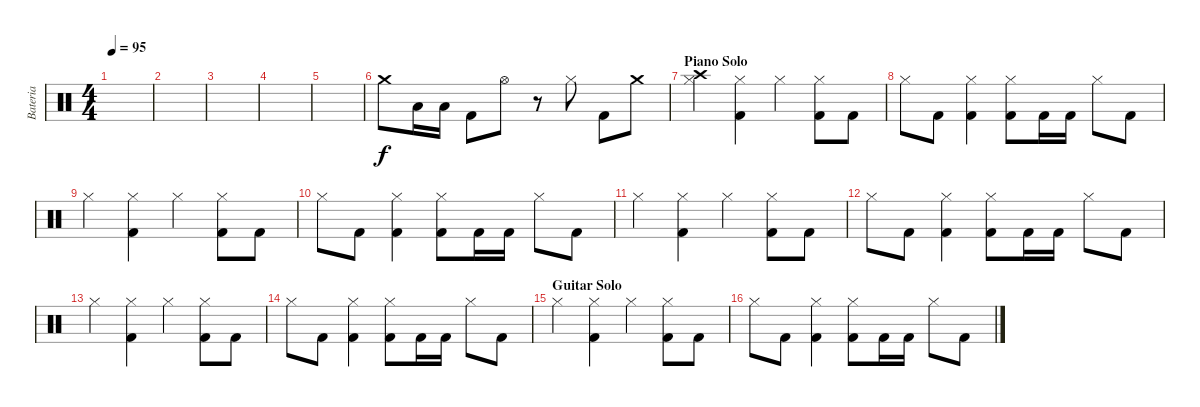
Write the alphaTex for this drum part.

\track ("Bateria" "Bateria") {instrument percussion}
\staff {score}
\articulation defaults
\ts (4 4)
\tempo 95
\clef neutral
\ks c
|
|
|
|
|
"Crash medium (hit)".8 "Low Tom (hit)".16 "Low Tom (hit)".16 "Kick (hit) 2".8 "Hi-Hat (open)".8 r.8 "Hi-Hat (closed)".8 "Kick (hit) 2".8 "Crash medium (hit)".8 |
\section ("" "Piano Solo")
("Hi-Hat (closed)" "Crash high (hit)").4 ("Hi-Hat (closed)" "Kick (hit) 2").4 "Hi-Hat (closed)".4 ("Hi-Hat (closed)" "Kick (hit) 2").8 "Kick (hit) 2".8 |
"Hi-Hat (closed)".8 "Kick (hit) 2".8 ("Hi-Hat (closed)" "Kick (hit) 2").4 ("Hi-Hat (closed)" "Kick (hit) 2").8 "Kick (hit) 2".16 "Kick (hit) 2".16 "Hi-Hat (closed)".8 "Kick (hit) 2".8 |
"Hi-Hat (closed)".4 ("Hi-Hat (closed)" "Kick (hit) 2").4 "Hi-Hat (closed)".4 ("Hi-Hat (closed)" "Kick (hit) 2").8 "Kick (hit) 2".8 |
"Hi-Hat (closed)".8 "Kick (hit) 2".8 ("Hi-Hat (closed)" "Kick (hit) 2").4 ("Hi-Hat (closed)" "Kick (hit) 2").8 "Kick (hit) 2".16 "Kick (hit) 2".16 "Hi-Hat (closed)".8 "Kick (hit) 2".8 |
"Hi-Hat (closed)".4 ("Hi-Hat (closed)" "Kick (hit) 2").4 "Hi-Hat (closed)".4 ("Hi-Hat (closed)" "Kick (hit) 2").8 "Kick (hit) 2".8 |
"Hi-Hat (closed)".8 "Kick (hit) 2".8 ("Hi-Hat (closed)" "Kick (hit) 2").4 ("Hi-Hat (closed)" "Kick (hit) 2").8 "Kick (hit) 2".16 "Kick (hit) 2".16 "Hi-Hat (closed)".8 "Kick (hit) 2".8 |
"Hi-Hat (closed)".4 ("Hi-Hat (closed)" "Kick (hit) 2").4 "Hi-Hat (closed)".4 ("Hi-Hat (closed)" "Kick (hit) 2").8 "Kick (hit) 2".8 |
"Hi-Hat (closed)".8 "Kick (hit) 2".8 ("Hi-Hat (closed)" "Kick (hit) 2").4 ("Hi-Hat (closed)" "Kick (hit) 2").8 "Kick (hit) 2".16 "Kick (hit) 2".16 "Hi-Hat (closed)".8 "Kick (hit) 2".8 |
\section ("" "Guitar Solo")
"Hi-Hat (closed)".4 ("Hi-Hat (closed)" "Kick (hit) 2").4 "Hi-Hat (closed)".4 ("Hi-Hat (closed)" "Kick (hit) 2").8 "Kick (hit) 2".8 |
"Hi-Hat (closed)".8 "Kick (hit) 2".8 ("Hi-Hat (closed)" "Kick (hit) 2").4 ("Hi-Hat (closed)" "Kick (hit) 2").8 "Kick (hit) 2".16 "Kick (hit) 2".16 "Hi-Hat (closed)".8 "Kick (hit) 2".8
